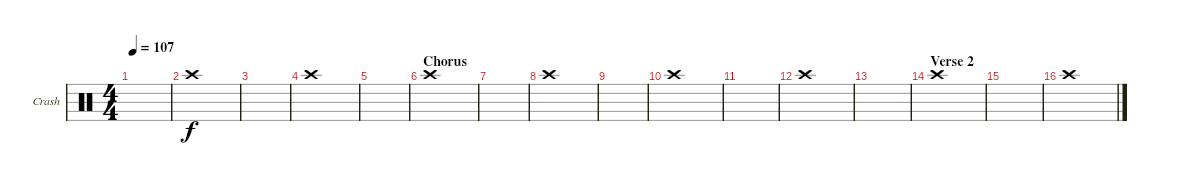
\bracketExtendMode groupsimilarinstruments
\firstSystemTrackNameOrientation horizontal
\otherSystemsTrackNameOrientation horizontal
\track ("Crash" "Crash") {instrument percussion}
\staff {score}
\articulation defaults
\ts (4 4)
\tempo 107
\clef neutral
\ks c
|
"Crash high (hit)".1 |
|
"Crash high (hit)".1 |
|
\section ("" "Chorus")
"Crash high (hit)".1 |
|
"Crash high (hit)".1 |
|
"Crash high (hit)".1 |
|
"Crash high (hit)".1 |
|
\section ("" "Verse 2")
"Crash high (hit)".1 |
|
"Crash high (hit)".1
